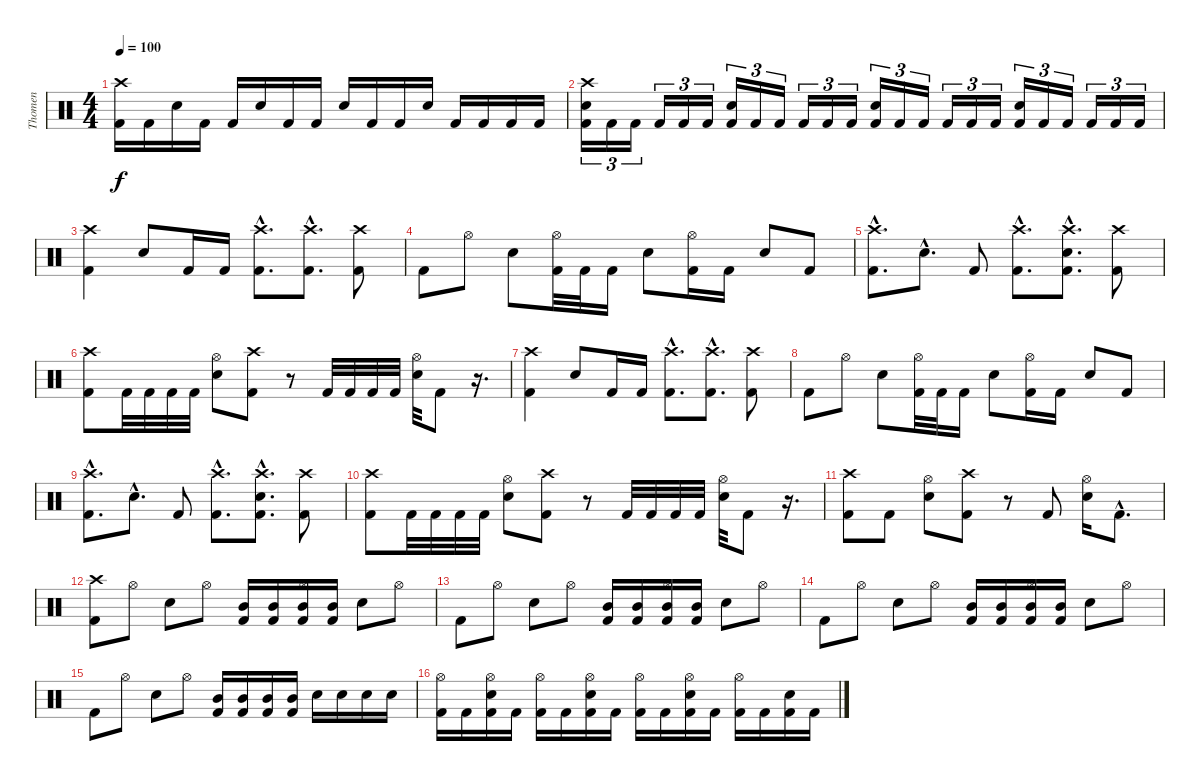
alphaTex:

\track ("Thomen" "Thomen") {instrument percussion}
\staff {score}
\articulation defaults
\ts (4 4)
\tempo 100
\clef neutral
\ks c
("Crash high (hit)" "Kick (hit) 2").16{dy f} "Kick (hit) 2".16 "Snare (hit) 2".16 "Kick (hit) 2".16 "Kick (hit) 2".16 "Snare (hit) 2".16 "Kick (hit) 2".16 "Kick (hit) 2".16 "Snare (hit) 2".16 "Kick (hit) 2".16 "Kick (hit) 2".16 "Snare (hit) 2".16 "Kick (hit) 2".16 "Kick (hit) 2".16 "Kick (hit) 2".16 "Kick (hit) 2".16 |
("Crash high (hit)" "Snare (hit) 2" "Kick (hit) 2").16{tu (3 2)} "Kick (hit) 2".16{tu (3 2)} "Kick (hit) 2".16{tu (3 2)} "Kick (hit) 2".16{tu (3 2)} "Kick (hit) 2".16{tu (3 2)} "Kick (hit) 2".16{tu (3 2)} ("Snare (hit) 2" "Kick (hit) 2").16{tu (3 2)} "Kick (hit) 2".16{tu (3 2)} "Kick (hit) 2".16{tu (3 2)} "Kick (hit) 2".16{tu (3 2)} "Kick (hit) 2".16{tu (3 2)} "Kick (hit) 2".16{tu (3 2)} ("Snare (hit) 2" "Kick (hit) 2").16{tu (3 2)} "Kick (hit) 2".16{tu (3 2)} "Kick (hit) 2".16{tu (3 2)} "Kick (hit) 2".16{tu (3 2)} "Kick (hit) 2".16{tu (3 2)} "Kick (hit) 2".16{tu (3 2)} ("Snare (hit) 2" "Kick (hit) 2").16{tu (3 2)} "Kick (hit) 2".16{tu (3 2)} "Kick (hit) 2".16{tu (3 2)} "Kick (hit) 2".16{tu (3 2)} "Kick (hit) 2".16{tu (3 2)} "Kick (hit) 2".16{tu (3 2)} |
("Crash high (hit)" "Kick (hit) 2").4 "Snare (hit) 2".8 "Kick (hit) 2".16 "Kick (hit) 2".16 ("Crash high (hit)"{hac} "Kick (hit) 2"{hac}).8{d} ("Crash high (hit)"{hac} "Kick (hit) 2"{hac}).8{d} ("Crash high (hit)" "Kick (hit) 2").8 |
"Kick (hit) 2".8 "Hi-Hat (open)".8 "Snare (hit) 2".8 ("Hi-Hat (open)" "Kick (hit) 2").32 "Kick (hit) 2".32 "Kick (hit) 2".16 "Snare (hit) 2".8 ("Hi-Hat (open)" "Kick (hit) 2").16 "Kick (hit) 2".16 "Snare (hit) 2".8 "Kick (hit) 2".8 |
("Crash high (hit)"{hac} "Kick (hit) 2"{hac}).8{d} "Snare (hit) 2"{hac}.8{d} "Kick (hit) 2".8 ("Crash high (hit)"{hac} "Kick (hit) 2"{hac}).8{d} ("Crash high (hit)"{hac} "Snare (hit) 2"{hac} "Kick (hit) 2"{hac}).8{d} ("Crash high (hit)" "Kick (hit) 2").8 |
("Crash high (hit)" "Kick (hit) 2").8 "Kick (hit) 2".32 "Kick (hit) 2".32 "Kick (hit) 2".32 "Kick (hit) 2".32 ("Hi-Hat (open)" "Snare (hit) 2").8 ("Crash high (hit)" "Kick (hit) 2").8 r.8 "Kick (hit) 2".32 "Kick (hit) 2".32 "Kick (hit) 2".32 "Kick (hit) 2".32 ("Hi-Hat (open)" "Snare (hit) 2").32 "Kick (hit) 2".8 r.16{d} |
("Crash high (hit)" "Kick (hit) 2").4 "Snare (hit) 2".8 "Kick (hit) 2".16 "Kick (hit) 2".16 ("Crash high (hit)"{hac} "Kick (hit) 2"{hac}).8{d} ("Crash high (hit)"{hac} "Kick (hit) 2"{hac}).8{d} ("Crash high (hit)" "Kick (hit) 2").8 |
"Kick (hit) 2".8 "Hi-Hat (open)".8 "Snare (hit) 2".8 ("Hi-Hat (open)" "Kick (hit) 2").32 "Kick (hit) 2".32 "Kick (hit) 2".16 "Snare (hit) 2".8 ("Hi-Hat (open)" "Kick (hit) 2").16 "Kick (hit) 2".16 "Snare (hit) 2".8 "Kick (hit) 2".8 |
("Crash high (hit)"{hac} "Kick (hit) 2"{hac}).8{d} "Snare (hit) 2"{hac}.8{d} "Kick (hit) 2".8 ("Crash high (hit)"{hac} "Kick (hit) 2"{hac}).8{d} ("Crash high (hit)"{hac} "Snare (hit) 2"{hac} "Kick (hit) 2"{hac}).8{d} ("Crash high (hit)" "Kick (hit) 2").8 |
("Crash high (hit)" "Kick (hit) 2").8 "Kick (hit) 2".32 "Kick (hit) 2".32 "Kick (hit) 2".32 "Kick (hit) 2".32 ("Hi-Hat (open)" "Snare (hit) 2").8 ("Crash high (hit)" "Kick (hit) 2").8 r.8 "Kick (hit) 2".32 "Kick (hit) 2".32 "Kick (hit) 2".32 "Kick (hit) 2".32 ("Hi-Hat (open)" "Snare (hit) 2").32 "Kick (hit) 2".8 r.16{d} |
("Crash high (hit)" "Kick (hit) 2").8 "Kick (hit) 2".8 ("Hi-Hat (open)" "Snare (hit) 2").8 ("Crash high (hit)" "Kick (hit) 2").8 r.8 "Kick (hit) 2".8 ("Hi-Hat (open)" "Snare (hit) 2").16 "Kick (hit) 2"{hac}.8{d} |
("Crash high (hit)" "Kick (hit) 2").8 "Hi-Hat (open)".8 "Snare (hit) 2".8 "Hi-Hat (open)".8 ("Mid Tom (hit)" "Kick (hit) 2").16 ("Mid Tom (hit)" "Kick (hit) 2").16 ("Hi-Hat (open)" "Mid Tom (hit)" "Kick (hit) 2").16 ("Mid Tom (hit)" "Kick (hit) 2").16 "Snare (hit) 2".8 "Hi-Hat (open)".8 |
"Kick (hit) 2".8 "Hi-Hat (open)".8 "Snare (hit) 2".8 "Hi-Hat (open)".8 ("Mid Tom (hit)" "Kick (hit) 2").16 ("Mid Tom (hit)" "Kick (hit) 2").16 ("Hi-Hat (open)" "Mid Tom (hit)" "Kick (hit) 2").16 ("Mid Tom (hit)" "Kick (hit) 2").16 "Snare (hit) 2".8 "Hi-Hat (open)".8 |
"Kick (hit) 2".8 "Hi-Hat (open)".8 "Snare (hit) 2".8 "Hi-Hat (open)".8 ("Mid Tom (hit)" "Kick (hit) 2").16 ("Mid Tom (hit)" "Kick (hit) 2").16 ("Hi-Hat (open)" "Mid Tom (hit)" "Kick (hit) 2").16 ("Mid Tom (hit)" "Kick (hit) 2").16 "Snare (hit) 2".8 "Hi-Hat (open)".8 |
"Kick (hit) 2".8 "Hi-Hat (open)".8 "Snare (hit) 2".8 "Hi-Hat (open)".8 ("Mid Tom (hit)" "Kick (hit) 2").16 ("Mid Tom (hit)" "Kick (hit) 2").16 ("Mid Tom (hit)" "Kick (hit) 2").16 ("Mid Tom (hit)" "Kick (hit) 2").16 "Snare (hit) 2".16 "Snare (hit) 2".16 "Snare (hit) 2".16 "Snare (hit) 2".16 |
("Hi-Hat (open)" "Kick (hit) 2").16 "Kick (hit) 2".16 ("Hi-Hat (open)" "Snare (hit) 2" "Kick (hit) 2").16 "Kick (hit) 2".16 ("Hi-Hat (open)" "Kick (hit) 2").16 "Kick (hit) 2".16 ("Hi-Hat (open)" "Snare (hit) 2" "Kick (hit) 2").16 "Kick (hit) 2".16 ("Hi-Hat (open)" "Kick (hit) 2").16 "Kick (hit) 2".16 ("Hi-Hat (open)" "Snare (hit) 2" "Kick (hit) 2").16 "Kick (hit) 2".16 ("Hi-Hat (open)" "Kick (hit) 2").16 "Kick (hit) 2".16 ("Snare (hit) 2" "Kick (hit) 2").16 "Kick (hit) 2".16
